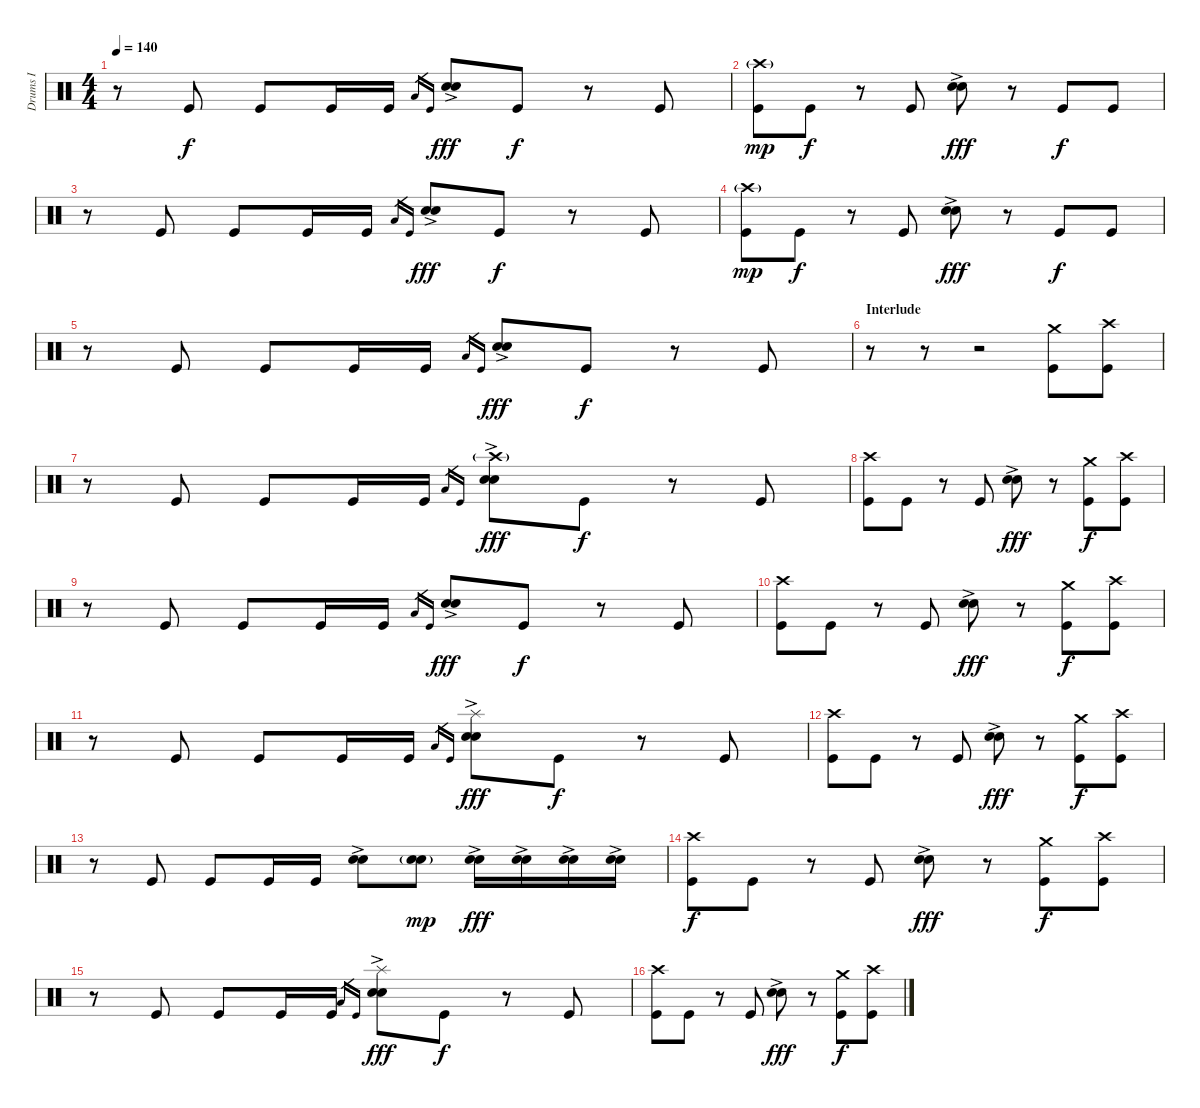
\track ("Drums I" "Drums I") {instrument percussion}
\staff {score}
\articulation defaults
\ts (4 4)
\tempo 140
\clef neutral
\ks c
r.8{dy f} "Kick (hit)".8 "Kick (hit)".8 "Kick (hit)".16 "Kick (hit)".16 "Low Floor Tom (hit)".16{gr} "Kick (hit)".16{gr} ("Electric Snare (hit)"{ac} "Snare (hit) 2").8{dy fff} "Kick (hit)".8{dy f} r.8 "Kick (hit)".8 |
("Crash high (hit)"{g} "Kick (hit)").8{dy mp} "Kick (hit)".8{dy f} r.8 "Kick (hit)".8 ("Electric Snare (hit)"{ac} "Snare (hit) 2").8{dy fff} r.8 "Kick (hit)".8{dy f} "Kick (hit)".8 |
r.8 "Kick (hit)".8 "Kick (hit)".8 "Kick (hit)".16 "Kick (hit)".16 "Low Floor Tom (hit)".16{gr} "Kick (hit)".16{gr} ("Electric Snare (hit)"{ac} "Snare (hit) 2").8{dy fff} "Kick (hit)".8{dy f} r.8 "Kick (hit)".8 |
("Crash high (hit)"{g} "Kick (hit)").8{dy mp} "Kick (hit)".8{dy f} r.8 "Kick (hit)".8 ("Electric Snare (hit)"{ac} "Snare (hit) 2").8{dy fff} r.8 "Kick (hit)".8{dy f} "Kick (hit)".8 |
r.8 "Kick (hit)".8 "Kick (hit)".8 "Kick (hit)".16 "Kick (hit)".16 "Low Floor Tom (hit)".16{gr} "Kick (hit)".16{gr} ("Electric Snare (hit)"{ac} "Snare (hit) 2").8{dy fff} "Kick (hit)".8{dy f} r.8 "Kick (hit)".8 |
\section ("" "Interlude")
r.8 r.8 r.2 ("Crash medium (hit)" "Kick (hit)").8 ("Crash high (hit)" "Kick (hit)").8 |
r.8 "Kick (hit)".8 "Kick (hit)".8 "Kick (hit)".16 "Kick (hit)".16 "Low Floor Tom (hit)".16{gr} "Kick (hit)".16{gr} ("Crash high (hit)"{g} "Electric Snare (hit)"{ac} "Snare (hit) 2").8{dy fff} "Kick (hit)".8{dy f} r.8 "Kick (hit)".8 |
("Crash high (hit)" "Kick (hit)").8 "Kick (hit)".8 r.8 "Kick (hit)".8 ("Electric Snare (hit)"{ac} "Snare (hit) 2").8{dy fff} r.8 ("Crash medium (hit)" "Kick (hit)").8{dy f} ("Crash high (hit)" "Kick (hit)").8 |
r.8 "Kick (hit)".8 "Kick (hit)".8 "Kick (hit)".16 "Kick (hit)".16 "Low Floor Tom (hit)".16{gr} "Kick (hit)".16{gr} ("Electric Snare (hit)"{ac} "Snare (hit) 2").8{dy fff} "Kick (hit)".8{dy f} r.8 "Kick (hit)".8 |
("Crash high (hit)" "Kick (hit)").8 "Kick (hit)".8 r.8 "Kick (hit)".8 ("Electric Snare (hit)"{ac} "Snare (hit) 2").8{dy fff} r.8 ("Crash medium (hit)" "Kick (hit)").8{dy f} ("Crash high (hit)" "Kick (hit)").8 |
r.8 "Kick (hit)".8 "Kick (hit)".8 "Kick (hit)".16 "Kick (hit)".16 "Low Floor Tom (hit)".16{gr} "Kick (hit)".16{gr} ("Splash (hit)" "Electric Snare (hit)"{ac} "Snare (hit) 2").8{dy fff} "Kick (hit)".8{dy f} r.8 "Kick (hit)".8 |
("Crash high (hit)" "Kick (hit)").8 "Kick (hit)".8 r.8 "Kick (hit)".8 ("Electric Snare (hit)"{ac} "Snare (hit) 2").8{dy fff} r.8 ("Crash medium (hit)" "Kick (hit)").8{dy f} ("Crash high (hit)" "Kick (hit)").8 |
r.8 "Kick (hit)".8 "Kick (hit)".8 "Kick (hit)".16 "Kick (hit)".16 ("Electric Snare (hit)" "Snare (hit) 2"{ac}).8 ("Electric Snare (hit)"{g} "Snare (hit) 2"{g}).8{dy mp} ("Electric Snare (hit)"{ac} "Snare (hit) 2").16{dy fff} ("Electric Snare (hit)" "Snare (hit) 2"{ac}).16 ("Electric Snare (hit)"{ac} "Snare (hit) 2").16 ("Electric Snare (hit)"{ac} "Snare (hit) 2").16 |
("Crash high (hit)" "Kick (hit)").8{dy f} "Kick (hit)".8 r.8 "Kick (hit)".8 ("Electric Snare (hit)"{ac} "Snare (hit) 2").8{dy fff} r.8 ("Crash medium (hit)" "Kick (hit)").8{dy f} ("Crash high (hit)" "Kick (hit)").8 |
r.8 "Kick (hit)".8 "Kick (hit)".8 "Kick (hit)".16 "Kick (hit)".16 "Low Floor Tom (hit)".16{gr} "Kick (hit)".16{gr} ("Splash (hit)" "Electric Snare (hit)"{ac} "Snare (hit) 2").8{dy fff} "Kick (hit)".8{dy f} r.8 "Kick (hit)".8 |
("Crash high (hit)" "Kick (hit)").8 "Kick (hit)".8 r.8 "Kick (hit)".8 ("Electric Snare (hit)"{ac} "Snare (hit) 2").8{dy fff} r.8 ("Crash medium (hit)" "Kick (hit)").8{dy f} ("Crash high (hit)" "Kick (hit)").8
